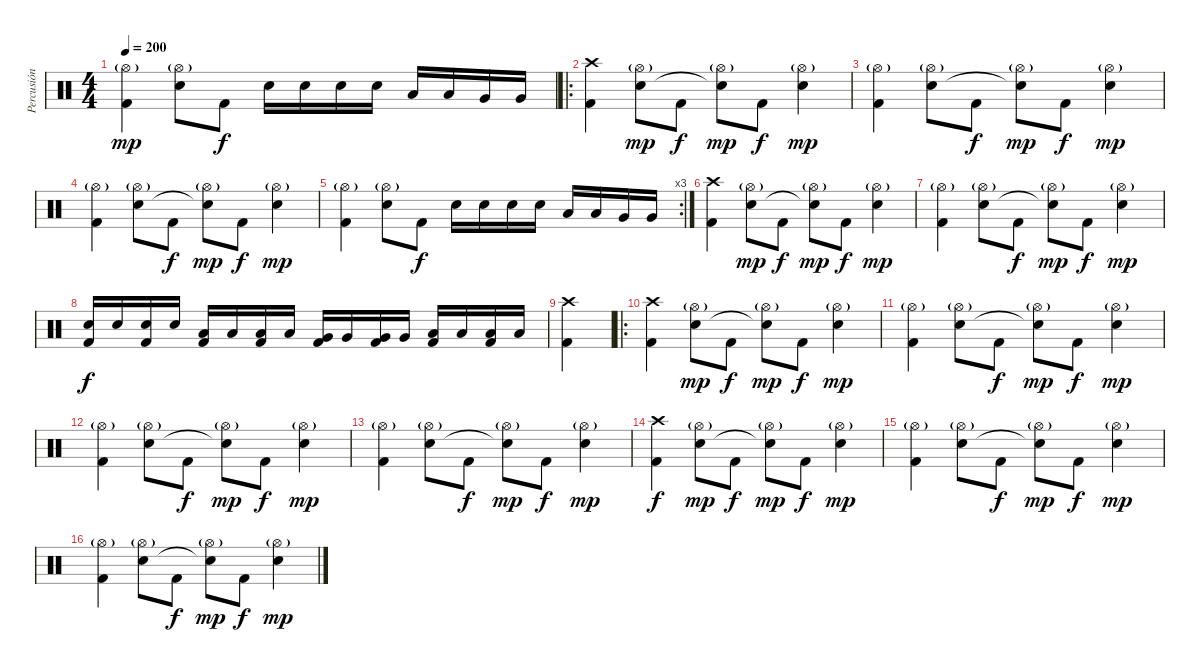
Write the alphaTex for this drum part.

\track ("Percusión" "Percusión") {instrument percussion}
\staff {score}
\articulation defaults
\ts (4 4)
\tempo 200
\clef neutral
\ks c
("Hi-Hat (open)"{g} "Kick (hit) 2").4{dy mp} ("Hi-Hat (open)"{g} "Snare (hit) 2").8 "Kick (hit) 2".8{dy f} "Snare (hit) 2".16 "Snare (hit) 2".16 "Snare (hit) 2".16 "Snare (hit) 2".16 "Low Tom (hit)".16 "Low Tom (hit)".16 "Very Low Tom (hit)".16 "Very Low Tom (hit)".16 |
\ro
("Crash high (hit)" "Kick (hit) 2").4 ("Hi-Hat (open)"{g} "Snare (hit) 2").8{dy mp} "Kick (hit) 2".8{dy f} ("Hi-Hat (open)"{g} "Snare (hit)"{t}).8{dy mp} "Kick (hit) 2".8{dy f} ("Hi-Hat (open)"{g} "Snare (hit) 2").4{dy mp} |
("Hi-Hat (open)"{g} "Kick (hit) 2").4 ("Hi-Hat (open)"{g} "Snare (hit) 2").8 "Kick (hit) 2".8{dy f} ("Hi-Hat (open)"{g} "Snare (hit)"{t}).8{dy mp} "Kick (hit) 2".8{dy f} ("Hi-Hat (open)"{g} "Snare (hit) 2").4{dy mp} |
("Hi-Hat (open)"{g} "Kick (hit) 2").4 ("Hi-Hat (open)"{g} "Snare (hit) 2").8 "Kick (hit) 2".8{dy f} ("Hi-Hat (open)"{g} "Snare (hit)"{t}).8{dy mp} "Kick (hit) 2".8{dy f} ("Hi-Hat (open)"{g} "Snare (hit) 2").4{dy mp} |
\rc 3
("Hi-Hat (open)"{g} "Kick (hit) 2").4 ("Hi-Hat (open)"{g} "Snare (hit) 2").8 "Kick (hit) 2".8{dy f} "Snare (hit) 2".16 "Snare (hit) 2".16 "Snare (hit) 2".16 "Snare (hit) 2".16 "Low Tom (hit)".16 "Low Tom (hit)".16 "Very Low Tom (hit)".16 "Very Low Tom (hit)".16 |
("Crash high (hit)" "Kick (hit) 2").4 ("Hi-Hat (open)"{g} "Snare (hit) 2").8{dy mp} "Kick (hit) 2".8{dy f} ("Hi-Hat (open)"{g} "Snare (hit)"{t}).8{dy mp} "Kick (hit) 2".8{dy f} ("Hi-Hat (open)"{g} "Snare (hit) 2").4{dy mp} |
("Hi-Hat (open)"{g} "Kick (hit) 2").4 ("Hi-Hat (open)"{g} "Snare (hit) 2").8 "Kick (hit) 2".8{dy f} ("Hi-Hat (open)"{g} "Snare (hit)"{t}).8{dy mp} "Kick (hit) 2".8{dy f} ("Hi-Hat (open)"{g} "Snare (hit) 2").4{dy mp} |
("Kick (hit) 2" "Snare (hit) 2").16{dy f} "Snare (hit) 2".16 ("Kick (hit) 2" "Snare (hit) 2").16 "Snare (hit) 2".16 ("Kick (hit) 2" "Low Tom (hit)").16 "Low Tom (hit)".16 ("Kick (hit) 2" "Low Tom (hit)").16 "Low Tom (hit)".16 ("Kick (hit) 2" "Very Low Tom (hit)").16 "Very Low Tom (hit)".16 ("Kick (hit) 2" "Very Low Tom (hit)").16 "Very Low Tom (hit)".16 ("Kick (hit) 2" "Low Floor Tom (hit)").16 "Low Floor Tom (hit)".16 ("Kick (hit) 2" "Low Floor Tom (hit)").16 "Low Floor Tom (hit)".16 |
("Crash high (hit)" "Kick (hit) 2").4 |
\ro
("Crash high (hit)" "Kick (hit) 2").4 ("Hi-Hat (open)"{g} "Snare (hit) 2").8{dy mp} "Kick (hit) 2".8{dy f} ("Hi-Hat (open)"{g} "Snare (hit)"{t}).8{dy mp} "Kick (hit) 2".8{dy f} ("Hi-Hat (open)"{g} "Snare (hit) 2").4{dy mp} |
("Hi-Hat (open)"{g} "Kick (hit) 2").4 ("Hi-Hat (open)"{g} "Snare (hit) 2").8 "Kick (hit) 2".8{dy f} ("Hi-Hat (open)"{g} "Snare (hit)"{t}).8{dy mp} "Kick (hit) 2".8{dy f} ("Hi-Hat (open)"{g} "Snare (hit) 2").4{dy mp} |
("Hi-Hat (open)"{g} "Kick (hit) 2").4 ("Hi-Hat (open)"{g} "Snare (hit) 2").8 "Kick (hit) 2".8{dy f} ("Hi-Hat (open)"{g} "Snare (hit)"{t}).8{dy mp} "Kick (hit) 2".8{dy f} ("Hi-Hat (open)"{g} "Snare (hit) 2").4{dy mp} |
("Hi-Hat (open)"{g} "Kick (hit) 2").4 ("Hi-Hat (open)"{g} "Snare (hit) 2").8 "Kick (hit) 2".8{dy f} ("Hi-Hat (open)"{g} "Snare (hit)"{t}).8{dy mp} "Kick (hit) 2".8{dy f} ("Hi-Hat (open)"{g} "Snare (hit) 2").4{dy mp} |
("Crash high (hit)" "Kick (hit) 2").4{dy f} ("Hi-Hat (open)"{g} "Snare (hit) 2").8{dy mp} "Kick (hit) 2".8{dy f} ("Hi-Hat (open)"{g} "Snare (hit)"{t}).8{dy mp} "Kick (hit) 2".8{dy f} ("Hi-Hat (open)"{g} "Snare (hit) 2").4{dy mp} |
("Hi-Hat (open)"{g} "Kick (hit) 2").4 ("Hi-Hat (open)"{g} "Snare (hit) 2").8 "Kick (hit) 2".8{dy f} ("Hi-Hat (open)"{g} "Snare (hit)"{t}).8{dy mp} "Kick (hit) 2".8{dy f} ("Hi-Hat (open)"{g} "Snare (hit) 2").4{dy mp} |
("Hi-Hat (open)"{g} "Kick (hit) 2").4 ("Hi-Hat (open)"{g} "Snare (hit) 2").8 "Kick (hit) 2".8{dy f} ("Hi-Hat (open)"{g} "Snare (hit)"{t}).8{dy mp} "Kick (hit) 2".8{dy f} ("Hi-Hat (open)"{g} "Snare (hit) 2").4{dy mp}
